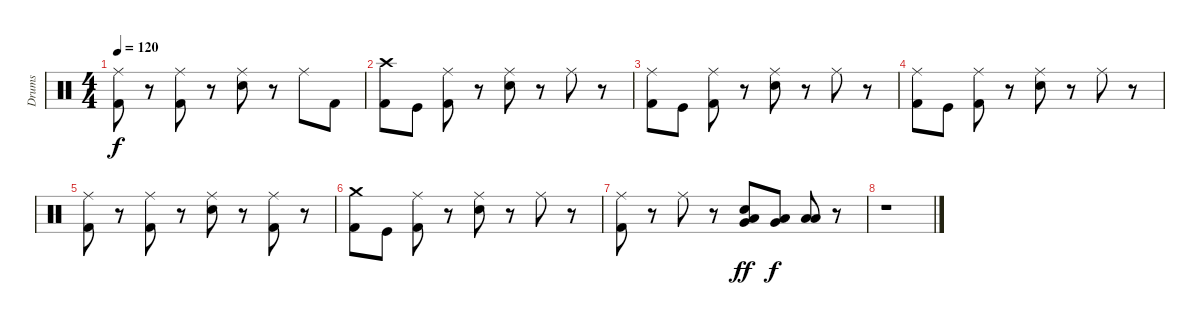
\track ("Drums" "Drums") {instrument percussion}
\staff {score}
\articulation defaults
\ts (4 4)
\tempo 120
\clef neutral
\ks c
("Ride (middle)" "Kick (hit) 2").8{dy f} r.8 ("Ride (middle)" "Kick (hit) 2").8 r.8 ("Ride (middle)" "Electric Snare (hit)").8 r.8 "Ride (middle)".8 "Kick (hit) 2".8 |
("Crash high (hit)" "Kick (hit) 2").8 "Kick (hit)".8 ("Ride (middle)" "Kick (hit) 2").8 r.8 ("Ride (middle)" "Electric Snare (hit)").8 r.8 "Ride (middle)".8 r.8 |
("Ride (middle)" "Kick (hit) 2").8 "Kick (hit)".8 ("Ride (middle)" "Kick (hit) 2").8 r.8 ("Ride (middle)" "Electric Snare (hit)").8 r.8 "Ride (middle)".8 r.8 |
("Ride (middle)" "Kick (hit) 2").8 "Kick (hit)".8 ("Ride (middle)" "Kick (hit) 2").8 r.8 ("Ride (middle)" "Electric Snare (hit)").8 r.8 "Ride (middle)".8 r.8 |
("Ride (middle)" "Kick (hit) 2").8 r.8 ("Ride (middle)" "Kick (hit) 2").8 r.8 ("Ride (middle)" "Electric Snare (hit)").8 r.8 ("Ride (middle)" "Kick (hit) 2").8 r.8 |
("Crash medium (hit)" "Kick (hit) 2").8 "Kick (hit)".8 ("Ride (middle)" "Kick (hit) 2").8 r.8 ("Ride (middle)" "Electric Snare (hit)").8 r.8 "Ride (middle)".8 r.8 |
("Ride (middle)" "Kick (hit) 2").8 r.8 "Ride (middle)".8 r.8 ("Very Low Tom (hit)" "Low Tom (hit)" "Electric Snare (hit)").8{dy ff} ("Very Low Tom (hit)" "Low Floor Tom (hit)").8{dy f} ("Low Floor Tom (hit)" "Low Floor Tom (hit)").8 r.8 |
r.1
